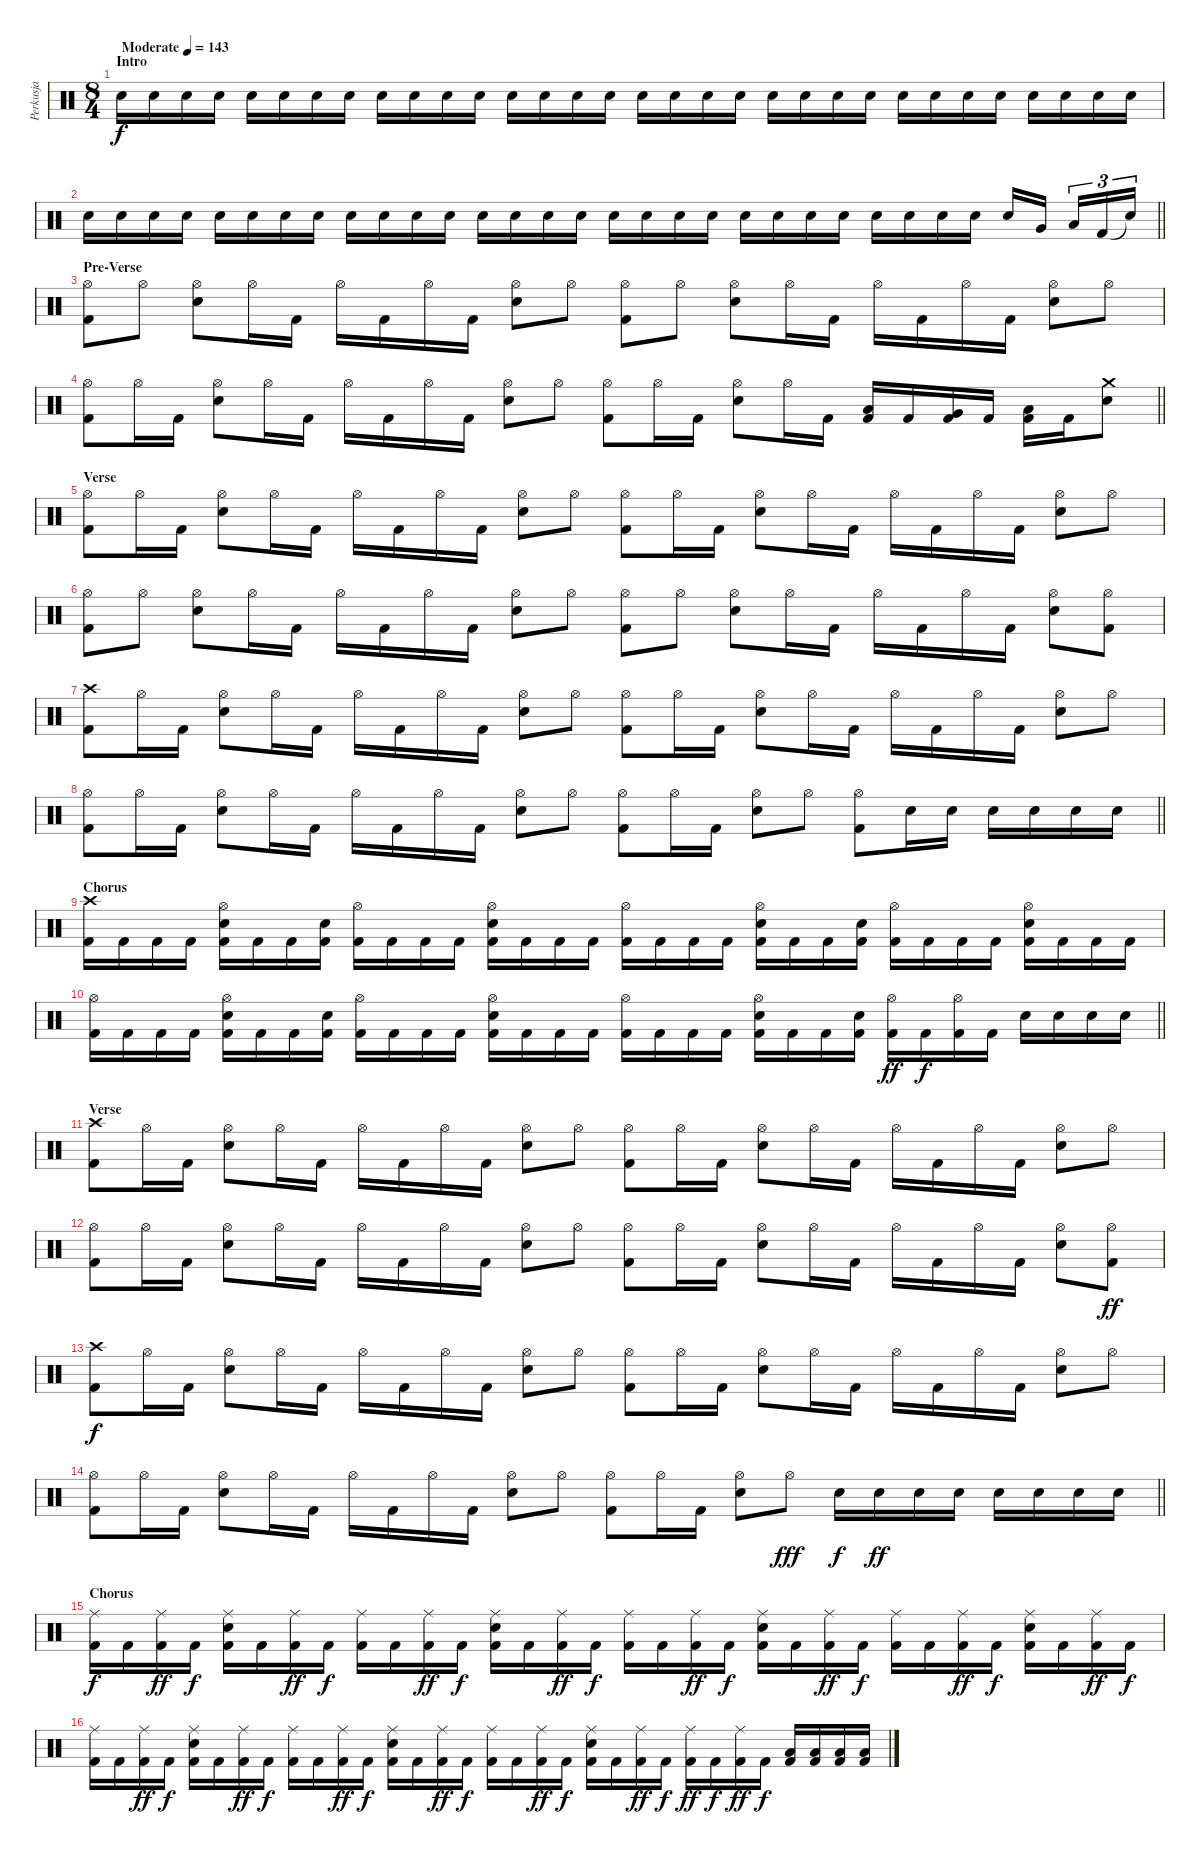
\track ("Perkusja" "Perkusja") {instrument percussion}
\staff {score}
\articulation defaults
\ts (8 4)
\section ("" "Intro")
\tempo (143 "Moderate")
\clef neutral
\ks c "Snare (hit) 2".16{dy f} "Snare (hit) 2".16 "Snare (hit) 2".16 "Snare (hit) 2".16 "Snare (hit) 2".16 "Snare (hit) 2".16 "Snare (hit) 2".16 "Snare (hit) 2".16 "Snare (hit) 2".16 "Snare (hit) 2".16 "Snare (hit) 2".16 "Snare (hit) 2".16 "Snare (hit) 2".16 "Snare (hit) 2".16 "Snare (hit) 2".16 "Snare (hit) 2".16 "Snare (hit) 2".16 "Snare (hit) 2".16 "Snare (hit) 2".16 "Snare (hit) 2".16 "Snare (hit) 2".16 "Snare (hit) 2".16 "Snare (hit) 2".16 "Snare (hit) 2".16 "Snare (hit) 2".16 "Snare (hit) 2".16 "Snare (hit) 2".16 "Snare (hit) 2".16 "Snare (hit) 2".16 "Snare (hit) 2".16 "Snare (hit) 2".16 "Snare (hit) 2".16
|
\barLineRight lightlight "Snare (hit) 2".16 "Snare (hit) 2".16 "Snare (hit) 2".16 "Snare (hit) 2".16 "Snare (hit) 2".16 "Snare (hit) 2".16 "Snare (hit) 2".16 "Snare (hit) 2".16 "Snare (hit) 2".16 "Snare (hit) 2".16 "Snare (hit) 2".16 "Snare (hit) 2".16 "Snare (hit) 2".16 "Snare (hit) 2".16 "Snare (hit) 2".16 "Snare (hit) 2".16 "Snare (hit) 2".16 "Snare (hit) 2".16 "Snare (hit) 2".16 "Snare (hit) 2".16 "Snare (hit) 2".16 "Snare (hit) 2".16 "Snare (hit) 2".16 "Snare (hit) 2".16 "Snare (hit) 2".16 "Snare (hit) 2".16 "Snare (hit) 2".16 "Snare (hit) 2".16 "Snare (hit) 2".16 "Very Low Tom (hit)".16{beam splitsecondary} "Low Floor Tom (hit)".16{tu (3 2)} "Kick (hit) 2".16{tu (3 2)} "Snare (hit)"{t}.16{tu (3 2)}
|
\section ("" "Pre-Verse")
("Hi-Hat (open)" "Kick (hit) 2").8 "Hi-Hat (open)".8 ("Hi-Hat (open)" "Snare (hit) 2").8 "Hi-Hat (open)".16 "Kick (hit) 2".16 "Hi-Hat (open)".16 "Kick (hit) 2".16 "Hi-Hat (open)".16 "Kick (hit) 2".16 ("Hi-Hat (open)" "Snare (hit) 2").8 "Hi-Hat (open)".8 ("Hi-Hat (open)" "Kick (hit) 2").8 "Hi-Hat (open)".8 ("Hi-Hat (open)" "Snare (hit) 2").8 "Hi-Hat (open)".16 "Kick (hit) 2".16 "Hi-Hat (open)".16 "Kick (hit) 2".16 "Hi-Hat (open)".16 "Kick (hit) 2".16 ("Hi-Hat (open)" "Snare (hit) 2").8 "Hi-Hat (open)".8 |
\barLineRight lightlight
("Hi-Hat (open)" "Kick (hit) 2").8 "Hi-Hat (open)".16 "Kick (hit) 2".16 ("Hi-Hat (open)" "Snare (hit) 2").8 "Hi-Hat (open)".16 "Kick (hit) 2".16 "Hi-Hat (open)".16 "Kick (hit) 2".16 "Hi-Hat (open)".16 "Kick (hit) 2".16 ("Hi-Hat (open)" "Snare (hit) 2").8 "Hi-Hat (open)".8 ("Hi-Hat (open)" "Kick (hit) 2").8 "Hi-Hat (open)".16 "Kick (hit) 2".16 ("Hi-Hat (open)" "Snare (hit) 2").8 "Hi-Hat (open)".16 "Kick (hit) 2".16 ("Low Tom (hit)" "Kick (hit) 2").16 "Kick (hit) 2".16 ("Very Low Tom (hit)" "Kick (hit) 2").16 "Kick (hit) 2".16 ("Low Floor Tom (hit)" "Kick (hit) 2").16 "Kick (hit) 2".16 ("Crash medium (hit)" "Snare (hit) 2").8 |
\section ("" "Verse")
("Hi-Hat (open)" "Kick (hit) 2").8 "Hi-Hat (open)".16 "Kick (hit) 2".16 ("Hi-Hat (open)" "Snare (hit) 2").8 "Hi-Hat (open)".16 "Kick (hit) 2".16 "Hi-Hat (open)".16 "Kick (hit) 2".16 "Hi-Hat (open)".16 "Kick (hit) 2".16 ("Hi-Hat (open)" "Snare (hit) 2").8 "Hi-Hat (open)".8 ("Hi-Hat (open)" "Kick (hit) 2").8 "Hi-Hat (open)".16 "Kick (hit) 2".16 ("Hi-Hat (open)" "Snare (hit) 2").8 "Hi-Hat (open)".16 "Kick (hit) 2".16 "Hi-Hat (open)".16 "Kick (hit) 2".16 "Hi-Hat (open)".16 "Kick (hit) 2".16 ("Hi-Hat (open)" "Snare (hit) 2").8 "Hi-Hat (open)".8 |
("Hi-Hat (open)" "Kick (hit) 2").8 "Hi-Hat (open)".8 ("Hi-Hat (open)" "Snare (hit) 2").8 "Hi-Hat (open)".16 "Kick (hit) 2".16 "Hi-Hat (open)".16 "Kick (hit) 2".16 "Hi-Hat (open)".16 "Kick (hit) 2".16 ("Hi-Hat (open)" "Snare (hit) 2").8 "Hi-Hat (open)".8 ("Hi-Hat (open)" "Kick (hit) 2").8 "Hi-Hat (open)".8 ("Hi-Hat (open)" "Snare (hit) 2").8 "Hi-Hat (open)".16 "Kick (hit) 2".16 "Hi-Hat (open)".16 "Kick (hit) 2".16 "Hi-Hat (open)".16 "Kick (hit) 2".16 ("Hi-Hat (open)" "Snare (hit) 2").8 ("Hi-Hat (open)" "Kick (hit) 2").8 |
("Crash high (hit)" "Kick (hit) 2").8 "Hi-Hat (open)".16 "Kick (hit) 2".16 ("Hi-Hat (open)" "Snare (hit) 2").8 "Hi-Hat (open)".16 "Kick (hit) 2".16 "Hi-Hat (open)".16 "Kick (hit) 2".16 "Hi-Hat (open)".16 "Kick (hit) 2".16 ("Hi-Hat (open)" "Snare (hit) 2").8 "Hi-Hat (open)".8 ("Hi-Hat (open)" "Kick (hit) 2").8 "Hi-Hat (open)".16 "Kick (hit) 2".16 ("Hi-Hat (open)" "Snare (hit) 2").8 "Hi-Hat (open)".16 "Kick (hit) 2".16 "Hi-Hat (open)".16 "Kick (hit) 2".16 "Hi-Hat (open)".16 "Kick (hit) 2".16 ("Hi-Hat (open)" "Snare (hit) 2").8 "Hi-Hat (open)".8 |
\barLineRight lightlight
("Hi-Hat (open)" "Kick (hit) 2").8 "Hi-Hat (open)".16 "Kick (hit) 2".16 ("Hi-Hat (open)" "Snare (hit) 2").8 "Hi-Hat (open)".16 "Kick (hit) 2".16 "Hi-Hat (open)".16 "Kick (hit) 2".16 "Hi-Hat (open)".16 "Kick (hit) 2".16 ("Hi-Hat (open)" "Snare (hit) 2").8 "Hi-Hat (open)".8 ("Hi-Hat (open)" "Kick (hit) 2").8 "Hi-Hat (open)".16 "Kick (hit) 2".16 ("Hi-Hat (open)" "Snare (hit) 2").8 "Hi-Hat (open)".8 ("Hi-Hat (open)" "Kick (hit) 2").8 "Snare (hit) 2".16 "Snare (hit) 2".16 "Snare (hit) 2".16 "Snare (hit) 2".16 "Snare (hit) 2".16 "Snare (hit) 2".16 |
\section ("" "Chorus")
("Crash high (hit)" "Kick (hit) 2").16 "Kick (hit) 2".16 "Kick (hit) 2".16 "Kick (hit) 2".16 ("Hi-Hat (open)" "Snare (hit) 2" "Kick (hit) 2").16 "Kick (hit) 2".16 "Kick (hit) 2".16 ("Snare (hit) 2" "Kick (hit) 2").16 ("Hi-Hat (open)" "Kick (hit) 2").16 "Kick (hit) 2".16 "Kick (hit) 2".16 "Kick (hit) 2".16 ("Hi-Hat (open)" "Snare (hit) 2" "Kick (hit) 2").16 "Kick (hit) 2".16 "Kick (hit) 2".16 "Kick (hit) 2".16 ("Hi-Hat (open)" "Kick (hit) 2").16 "Kick (hit) 2".16 "Kick (hit) 2".16 "Kick (hit) 2".16 ("Hi-Hat (open)" "Snare (hit) 2" "Kick (hit) 2").16 "Kick (hit) 2".16 "Kick (hit) 2".16 ("Snare (hit) 2" "Kick (hit) 2").16 ("Hi-Hat (open)" "Kick (hit) 2").16 "Kick (hit) 2".16 "Kick (hit) 2".16 "Kick (hit) 2".16 ("Hi-Hat (open)" "Snare (hit) 2" "Kick (hit) 2").16 "Kick (hit) 2".16 "Kick (hit) 2".16 "Kick (hit) 2".16 |
\barLineRight lightlight
("Hi-Hat (open)" "Kick (hit) 2").16 "Kick (hit) 2".16 "Kick (hit) 2".16 "Kick (hit) 2".16 ("Hi-Hat (open)" "Snare (hit) 2" "Kick (hit) 2").16 "Kick (hit) 2".16 "Kick (hit) 2".16 ("Snare (hit) 2" "Kick (hit) 2").16 ("Hi-Hat (open)" "Kick (hit) 2").16 "Kick (hit) 2".16 "Kick (hit) 2".16 "Kick (hit) 2".16 ("Hi-Hat (open)" "Snare (hit) 2" "Kick (hit) 2").16 "Kick (hit) 2".16 "Kick (hit) 2".16 "Kick (hit) 2".16 ("Hi-Hat (open)" "Kick (hit) 2").16 "Kick (hit) 2".16 "Kick (hit) 2".16 "Kick (hit) 2".16 ("Hi-Hat (open)" "Snare (hit) 2" "Kick (hit) 2").16 "Kick (hit) 2".16 "Kick (hit) 2".16 ("Snare (hit) 2" "Kick (hit) 2").16 ("Hi-Hat (open)" "Kick (hit) 2").16{dy ff} "Kick (hit) 2".16{dy f} ("Hi-Hat (open)" "Kick (hit) 2").16 "Kick (hit) 2".16 "Snare (hit) 2".16 "Snare (hit) 2".16 "Snare (hit) 2".16 "Snare (hit) 2".16 |
\section ("" "Verse")
("Crash high (hit)" "Kick (hit) 2").8 "Hi-Hat (open)".16 "Kick (hit) 2".16 ("Hi-Hat (open)" "Snare (hit) 2").8 "Hi-Hat (open)".16 "Kick (hit) 2".16 "Hi-Hat (open)".16 "Kick (hit) 2".16 "Hi-Hat (open)".16 "Kick (hit) 2".16 ("Hi-Hat (open)" "Snare (hit) 2").8 "Hi-Hat (open)".8 ("Hi-Hat (open)" "Kick (hit) 2").8 "Hi-Hat (open)".16 "Kick (hit) 2".16 ("Hi-Hat (open)" "Snare (hit) 2").8 "Hi-Hat (open)".16 "Kick (hit) 2".16 "Hi-Hat (open)".16 "Kick (hit) 2".16 "Hi-Hat (open)".16 "Kick (hit) 2".16 ("Hi-Hat (open)" "Snare (hit) 2").8 "Hi-Hat (open)".8 |
("Hi-Hat (open)" "Kick (hit) 2").8 "Hi-Hat (open)".16 "Kick (hit) 2".16 ("Hi-Hat (open)" "Snare (hit) 2").8 "Hi-Hat (open)".16 "Kick (hit) 2".16 "Hi-Hat (open)".16 "Kick (hit) 2".16 "Hi-Hat (open)".16 "Kick (hit) 2".16 ("Hi-Hat (open)" "Snare (hit) 2").8 "Hi-Hat (open)".8 ("Hi-Hat (open)" "Kick (hit) 2").8 "Hi-Hat (open)".16 "Kick (hit) 2".16 ("Hi-Hat (open)" "Snare (hit) 2").8 "Hi-Hat (open)".16 "Kick (hit) 2".16 "Hi-Hat (open)".16 "Kick (hit) 2".16 "Hi-Hat (open)".16 "Kick (hit) 2".16 ("Hi-Hat (open)" "Snare (hit) 2").8 ("Hi-Hat (open)" "Kick (hit) 2").8{dy ff} |
("Crash high (hit)" "Kick (hit) 2").8{dy f} "Hi-Hat (open)".16 "Kick (hit) 2".16 ("Hi-Hat (open)" "Snare (hit) 2").8 "Hi-Hat (open)".16 "Kick (hit) 2".16 "Hi-Hat (open)".16 "Kick (hit) 2".16 "Hi-Hat (open)".16 "Kick (hit) 2".16 ("Hi-Hat (open)" "Snare (hit) 2").8 "Hi-Hat (open)".8 ("Hi-Hat (open)" "Kick (hit) 2").8 "Hi-Hat (open)".16 "Kick (hit) 2".16 ("Hi-Hat (open)" "Snare (hit) 2").8 "Hi-Hat (open)".16 "Kick (hit) 2".16 "Hi-Hat (open)".16 "Kick (hit) 2".16 "Hi-Hat (open)".16 "Kick (hit) 2".16 ("Hi-Hat (open)" "Snare (hit) 2").8 "Hi-Hat (open)".8 |
\barLineRight lightlight
("Hi-Hat (open)" "Kick (hit) 2").8 "Hi-Hat (open)".16 "Kick (hit) 2".16 ("Hi-Hat (open)" "Snare (hit) 2").8 "Hi-Hat (open)".16 "Kick (hit) 2".16 "Hi-Hat (open)".16 "Kick (hit) 2".16 "Hi-Hat (open)".16 "Kick (hit) 2".16 ("Hi-Hat (open)" "Snare (hit) 2").8 "Hi-Hat (open)".8 ("Hi-Hat (open)" "Kick (hit) 2").8 "Hi-Hat (open)".16 "Kick (hit) 2".16 ("Hi-Hat (open)" "Snare (hit) 2").8 "Hi-Hat (open)".8{dy fff} "Snare (hit) 2".16{dy f} "Snare (hit) 2".16{dy ff} "Snare (hit) 2".16 "Snare (hit) 2".16 "Snare (hit) 2".16 "Snare (hit) 2".16 "Snare (hit) 2".16 "Snare (hit) 2".16 |
\section ("" "Chorus")
("Ride (middle)" "Kick (hit) 2").16{dy f} "Kick (hit) 2".16 ("Ride (middle)" "Kick (hit) 2").16{dy ff} "Kick (hit) 2".16{dy f} ("Ride (middle)" "Snare (hit) 2" "Kick (hit) 2").16 "Kick (hit) 2".16 ("Ride (middle)" "Kick (hit) 2").16{dy ff} "Kick (hit) 2".16{dy f} ("Ride (middle)" "Kick (hit) 2").16 "Kick (hit) 2".16 ("Ride (middle)" "Kick (hit) 2").16{dy ff} "Kick (hit) 2".16{dy f} ("Ride (middle)" "Snare (hit) 2" "Kick (hit) 2").16 "Kick (hit) 2".16 ("Ride (middle)" "Kick (hit) 2").16{dy ff} "Kick (hit) 2".16{dy f} ("Ride (middle)" "Kick (hit) 2").16 "Kick (hit) 2".16 ("Ride (middle)" "Kick (hit) 2").16{dy ff} "Kick (hit) 2".16{dy f} ("Ride (middle)" "Snare (hit) 2" "Kick (hit) 2").16 "Kick (hit) 2".16 ("Ride (middle)" "Kick (hit) 2").16{dy ff} "Kick (hit) 2".16{dy f} ("Ride (middle)" "Kick (hit) 2").16 "Kick (hit) 2".16 ("Ride (middle)" "Kick (hit) 2").16{dy ff} "Kick (hit) 2".16{dy f} ("Ride (middle)" "Snare (hit) 2" "Kick (hit) 2").16 "Kick (hit) 2".16 ("Ride (middle)" "Kick (hit) 2").16{dy ff} "Kick (hit) 2".16{dy f} |
("Ride (middle)" "Kick (hit) 2").16 "Kick (hit) 2".16 ("Ride (middle)" "Kick (hit) 2").16{dy ff} "Kick (hit) 2".16{dy f} ("Ride (middle)" "Snare (hit) 2" "Kick (hit) 2").16 "Kick (hit) 2".16 ("Ride (middle)" "Kick (hit) 2").16{dy ff} "Kick (hit) 2".16{dy f} ("Ride (middle)" "Kick (hit) 2").16 "Kick (hit) 2".16 ("Ride (middle)" "Kick (hit) 2").16{dy ff} "Kick (hit) 2".16{dy f} ("Ride (middle)" "Snare (hit) 2" "Kick (hit) 2").16 "Kick (hit) 2".16 ("Ride (middle)" "Kick (hit) 2").16{dy ff} "Kick (hit) 2".16{dy f} ("Ride (middle)" "Kick (hit) 2").16 "Kick (hit) 2".16 ("Ride (middle)" "Kick (hit) 2").16{dy ff} "Kick (hit) 2".16{dy f} ("Ride (middle)" "Snare (hit) 2" "Kick (hit) 2").16 "Kick (hit) 2".16 ("Ride (middle)" "Kick (hit) 2").16{dy ff} "Kick (hit) 2".16{dy f} ("Ride (middle)" "Kick (hit) 2").16{dy ff} "Kick (hit) 2".16{dy f} ("Ride (middle)" "Kick (hit) 2").16{dy ff} "Kick (hit) 2".16{dy f} ("Low Tom (hit)" "Kick (hit) 2").16 ("Low Tom (hit)" "Kick (hit) 2").16 ("Low Floor Tom (hit)" "Kick (hit) 2").16 ("Low Floor Tom (hit)" "Kick (hit) 2").16
